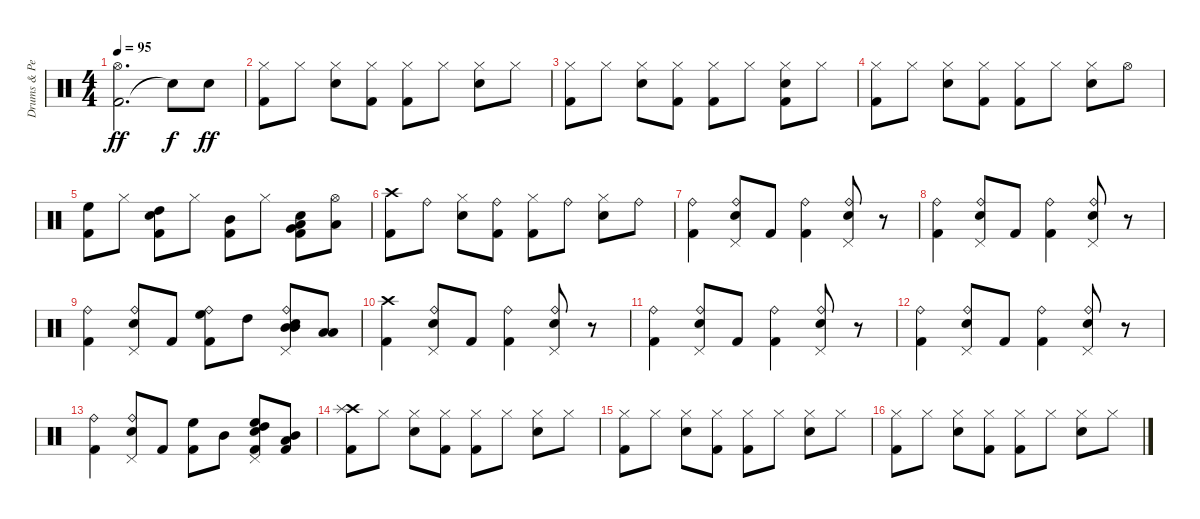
\track ("Drums & Percussion" "Drums & Pe") {instrument percussion}
\staff {score}
\articulation defaults
\ts (4 4)
\tempo 95
\clef neutral
\ks c
("Kick (hit) 2" "Hi-Hat (open)").2{d dy ff} "Snare (hit)"{t}.8{dy f} "Snare (hit) 2".8{dy ff} |
("Kick (hit) 2" "Hi-Hat (closed)").8 "Hi-Hat (closed)".8 ("Snare (hit) 2" "Hi-Hat (closed)").8 ("Kick (hit) 2" "Hi-Hat (closed)").8 ("Kick (hit) 2" "Hi-Hat (closed)").8 "Hi-Hat (closed)".8 ("Snare (hit) 2" "Hi-Hat (closed)").8 "Hi-Hat (closed)".8 |
("Kick (hit) 2" "Hi-Hat (closed)").8 "Hi-Hat (closed)".8 ("Snare (hit) 2" "Hi-Hat (closed)").8 ("Kick (hit) 2" "Hi-Hat (closed)").8 ("Kick (hit) 2" "Hi-Hat (closed)").8 "Hi-Hat (closed)".8 ("Kick (hit) 2" "Snare (hit) 2" "Hi-Hat (closed)").8 "Hi-Hat (closed)".8 |
("Kick (hit) 2" "Hi-Hat (closed)").8 "Hi-Hat (closed)".8 ("Snare (hit) 2" "Hi-Hat (closed)").8 ("Kick (hit) 2" "Hi-Hat (closed)").8 ("Kick (hit) 2" "Hi-Hat (closed)").8 "Hi-Hat (closed)".8 ("Snare (hit) 2" "Hi-Hat (closed)").8 "Hi-Hat (open)".8 |
("Kick (hit) 2" "High Floor Tom (hit)").8 "Hi-Hat (closed)".8 ("Kick (hit) 2" "Snare (hit) 2" "High Tom (hit)").8 "Hi-Hat (closed)".8 ("Kick (hit) 2" "Mid Tom (hit)").8 "Hi-Hat (closed)".8 ("Kick (hit) 2" "Snare (hit) 2" "Low Tom (hit)" "Very Low Tom (hit)").8 ("Low Floor Tom (hit)" "Hi-Hat (open)").8 |
("Kick (hit) 2" "Crash high (hit)").8 "Ride (bell)".8 ("Snare (hit) 2" "Hi-Hat (closed)").8 ("Kick (hit) 2" "Ride (bell)").8 ("Kick (hit) 2" "Hi-Hat (closed)").8 "Ride (bell)".8 ("Snare (hit) 2" "Hi-Hat (closed)").8 "Ride (bell)".8 |
("Kick (hit) 2" "Ride (bell)").4 ("Snare (hit) 2" "Ride (bell)" "Pedal Hi-Hat (hit)").8 "Kick (hit) 2".8 ("Kick (hit) 2" "Ride (bell)").4 ("Snare (hit) 2" "Ride (bell)" "Pedal Hi-Hat (hit)").8 r.8 |
("Kick (hit) 2" "Ride (bell)").4 ("Snare (hit) 2" "Ride (bell)" "Pedal Hi-Hat (hit)").8 "Kick (hit) 2".8 ("Kick (hit) 2" "Ride (bell)").4 ("Snare (hit) 2" "Ride (bell)" "Pedal Hi-Hat (hit)").8 r.8 |
("Kick (hit) 2" "Ride (bell)").4 ("Snare (hit) 2" "Ride (bell)" "Pedal Hi-Hat (hit)").8 "Kick (hit) 2".8 ("Kick (hit) 2" "Ride (bell)" "High Floor Tom (hit)").8 "High Tom (hit)".8 ("Snare (hit) 2" "Ride (bell)" "Pedal Hi-Hat (hit)" "Mid Tom (hit)" "Mid Tom (hit)").8 ("Low Tom (hit)" "Low Tom (hit)").8 |
("Kick (hit) 2" "Crash high (hit)").4 ("Snare (hit) 2" "Ride (bell)" "Pedal Hi-Hat (hit)").8 "Kick (hit) 2".8 ("Kick (hit) 2" "Ride (bell)").4 ("Snare (hit) 2" "Ride (bell)" "Pedal Hi-Hat (hit)").8 r.8 |
("Kick (hit) 2" "Ride (bell)").4 ("Snare (hit) 2" "Ride (bell)" "Pedal Hi-Hat (hit)").8 "Kick (hit) 2".8 ("Kick (hit) 2" "Ride (bell)").4 ("Snare (hit) 2" "Ride (bell)" "Pedal Hi-Hat (hit)").8 r.8 |
("Kick (hit) 2" "Ride (bell)").4 ("Snare (hit) 2" "Ride (bell)" "Pedal Hi-Hat (hit)").8 "Kick (hit) 2".8 ("Kick (hit) 2" "Ride (bell)").4 ("Snare (hit) 2" "Ride (bell)" "Pedal Hi-Hat (hit)").8 r.8 |
("Kick (hit) 2" "Ride (bell)").4 ("Snare (hit) 2" "Ride (bell)" "Pedal Hi-Hat (hit)").8 "Kick (hit) 2".8 ("Kick (hit) 2" "High Floor Tom (hit)").8 "Mid Tom (hit)".8 ("Kick (hit) 2" "Snare (hit) 2" "Pedal Hi-Hat (hit)" "High Floor Tom (hit)" "High Tom (hit)").8 ("Kick (hit) 2" "Low Tom (hit)" "Mid Tom (hit)").8 |
("Kick (hit) 2" "Crash high (hit)" "Splash (hit)").8 "Hi-Hat (closed)".8 ("Snare (hit) 2" "Hi-Hat (closed)").8 ("Kick (hit) 2" "Hi-Hat (closed)").8 ("Kick (hit) 2" "Hi-Hat (closed)").8 "Hi-Hat (closed)".8 ("Snare (hit) 2" "Hi-Hat (closed)").8 "Hi-Hat (closed)".8 |
("Kick (hit) 2" "Hi-Hat (closed)").8 "Hi-Hat (closed)".8 ("Snare (hit) 2" "Hi-Hat (closed)").8 ("Kick (hit) 2" "Hi-Hat (closed)").8 ("Kick (hit) 2" "Hi-Hat (closed)").8 "Hi-Hat (closed)".8 ("Snare (hit) 2" "Hi-Hat (closed)").8 "Hi-Hat (closed)".8 |
("Kick (hit) 2" "Hi-Hat (closed)").8 "Hi-Hat (closed)".8 ("Snare (hit) 2" "Hi-Hat (closed)").8 ("Kick (hit) 2" "Hi-Hat (closed)").8 ("Kick (hit) 2" "Hi-Hat (closed)").8 "Hi-Hat (closed)".8 ("Snare (hit) 2" "Hi-Hat (closed)").8 "Hi-Hat (closed)".8
